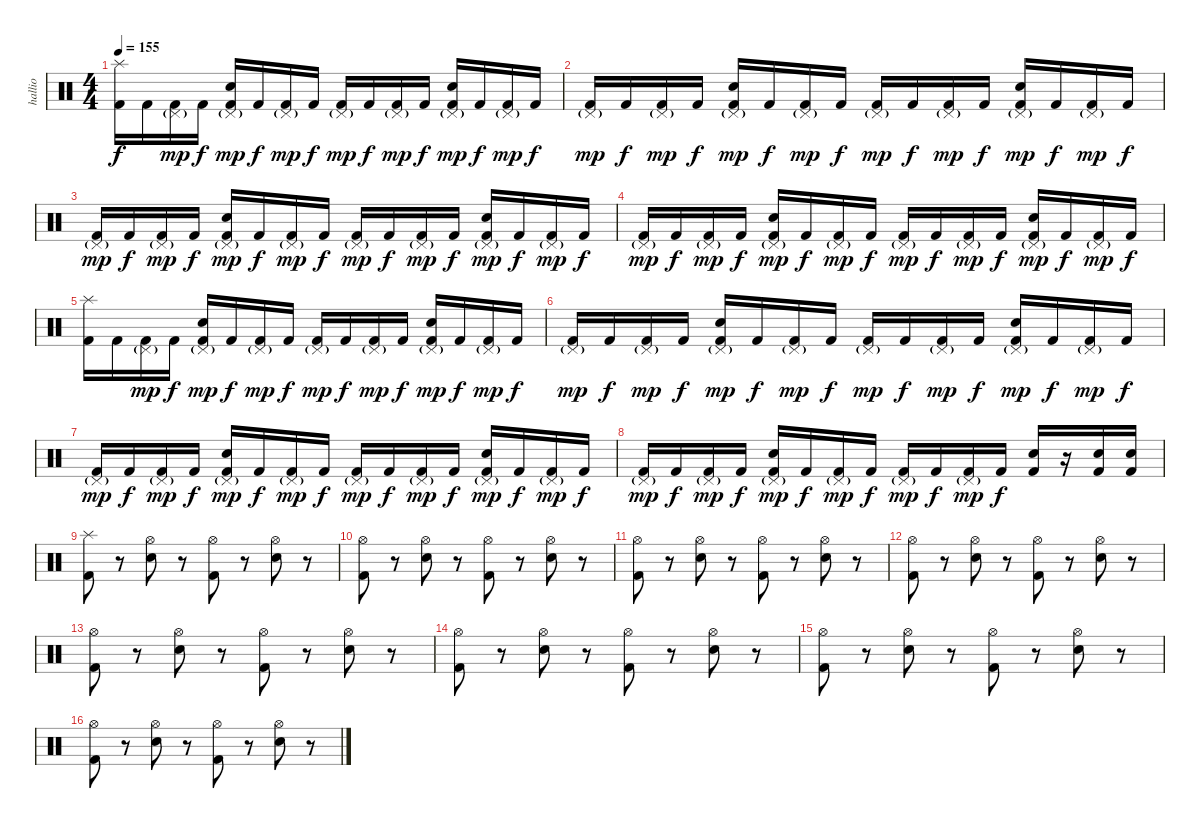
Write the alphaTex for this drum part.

\track ("hallio" "hallio") {instrument percussion}
\staff {score}
\articulation defaults
\ts (4 4)
\tempo 155
\clef neutral
\ks c
("Kick (hit) 2" "Splash (hit)").16{dy f} "Kick (hit) 2".16 ("Kick (hit) 2" "Pedal Hi-Hat (hit)"{g}).16{dy mp} "Kick (hit) 2".16{dy f} ("Kick (hit) 2" "Snare (hit) 2" "Pedal Hi-Hat (hit)"{g}).16{dy mp} "Kick (hit) 2".16{dy f} ("Kick (hit) 2" "Pedal Hi-Hat (hit)"{g}).16{dy mp} "Kick (hit) 2".16{dy f} ("Kick (hit) 2" "Pedal Hi-Hat (hit)"{g}).16{dy mp} "Kick (hit) 2".16{dy f} ("Kick (hit) 2" "Pedal Hi-Hat (hit)"{g}).16{dy mp} "Kick (hit) 2".16{dy f} ("Kick (hit) 2" "Snare (hit) 2" "Pedal Hi-Hat (hit)"{g}).16{dy mp} "Kick (hit) 2".16{dy f} ("Kick (hit) 2" "Pedal Hi-Hat (hit)"{g}).16{dy mp} "Kick (hit) 2".16{dy f} |
("Kick (hit) 2" "Pedal Hi-Hat (hit)"{g}).16{dy mp} "Kick (hit) 2".16{dy f} ("Kick (hit) 2" "Pedal Hi-Hat (hit)"{g}).16{dy mp} "Kick (hit) 2".16{dy f} ("Kick (hit) 2" "Snare (hit) 2" "Pedal Hi-Hat (hit)"{g}).16{dy mp} "Kick (hit) 2".16{dy f} ("Kick (hit) 2" "Pedal Hi-Hat (hit)"{g}).16{dy mp} "Kick (hit) 2".16{dy f} ("Kick (hit) 2" "Pedal Hi-Hat (hit)"{g}).16{dy mp} "Kick (hit) 2".16{dy f} ("Kick (hit) 2" "Pedal Hi-Hat (hit)"{g}).16{dy mp} "Kick (hit) 2".16{dy f} ("Kick (hit) 2" "Snare (hit) 2" "Pedal Hi-Hat (hit)"{g}).16{dy mp} "Kick (hit) 2".16{dy f} ("Kick (hit) 2" "Pedal Hi-Hat (hit)"{g}).16{dy mp} "Kick (hit) 2".16{dy f} |
("Kick (hit) 2" "Pedal Hi-Hat (hit)"{g}).16{dy mp} "Kick (hit) 2".16{dy f} ("Kick (hit) 2" "Pedal Hi-Hat (hit)"{g}).16{dy mp} "Kick (hit) 2".16{dy f} ("Kick (hit) 2" "Snare (hit) 2" "Pedal Hi-Hat (hit)"{g}).16{dy mp} "Kick (hit) 2".16{dy f} ("Kick (hit) 2" "Pedal Hi-Hat (hit)"{g}).16{dy mp} "Kick (hit) 2".16{dy f} ("Kick (hit) 2" "Pedal Hi-Hat (hit)"{g}).16{dy mp} "Kick (hit) 2".16{dy f} ("Kick (hit) 2" "Pedal Hi-Hat (hit)"{g}).16{dy mp} "Kick (hit) 2".16{dy f} ("Kick (hit) 2" "Snare (hit) 2" "Pedal Hi-Hat (hit)"{g}).16{dy mp} "Kick (hit) 2".16{dy f} ("Kick (hit) 2" "Pedal Hi-Hat (hit)"{g}).16{dy mp} "Kick (hit) 2".16{dy f} |
("Kick (hit) 2" "Pedal Hi-Hat (hit)"{g}).16{dy mp} "Kick (hit) 2".16{dy f} ("Kick (hit) 2" "Pedal Hi-Hat (hit)"{g}).16{dy mp} "Kick (hit) 2".16{dy f} ("Kick (hit) 2" "Snare (hit) 2" "Pedal Hi-Hat (hit)"{g}).16{dy mp} "Kick (hit) 2".16{dy f} ("Kick (hit) 2" "Pedal Hi-Hat (hit)"{g}).16{dy mp} "Kick (hit) 2".16{dy f} ("Kick (hit) 2" "Pedal Hi-Hat (hit)"{g}).16{dy mp} "Kick (hit) 2".16{dy f} ("Kick (hit) 2" "Pedal Hi-Hat (hit)"{g}).16{dy mp} "Kick (hit) 2".16{dy f} ("Kick (hit) 2" "Snare (hit) 2" "Pedal Hi-Hat (hit)"{g}).16{dy mp} "Kick (hit) 2".16{dy f} ("Kick (hit) 2" "Pedal Hi-Hat (hit)"{g}).16{dy mp} "Kick (hit) 2".16{dy f} |
("Kick (hit) 2" "Splash (hit)").16 "Kick (hit) 2".16 ("Kick (hit) 2" "Pedal Hi-Hat (hit)"{g}).16{dy mp} "Kick (hit) 2".16{dy f} ("Kick (hit) 2" "Snare (hit) 2" "Pedal Hi-Hat (hit)"{g}).16{dy mp} "Kick (hit) 2".16{dy f} ("Kick (hit) 2" "Pedal Hi-Hat (hit)"{g}).16{dy mp} "Kick (hit) 2".16{dy f} ("Kick (hit) 2" "Pedal Hi-Hat (hit)"{g}).16{dy mp} "Kick (hit) 2".16{dy f} ("Kick (hit) 2" "Pedal Hi-Hat (hit)"{g}).16{dy mp} "Kick (hit) 2".16{dy f} ("Kick (hit) 2" "Snare (hit) 2" "Pedal Hi-Hat (hit)"{g}).16{dy mp} "Kick (hit) 2".16{dy f} ("Kick (hit) 2" "Pedal Hi-Hat (hit)"{g}).16{dy mp} "Kick (hit) 2".16{dy f} |
("Kick (hit) 2" "Pedal Hi-Hat (hit)"{g}).16{dy mp} "Kick (hit) 2".16{dy f} ("Kick (hit) 2" "Pedal Hi-Hat (hit)"{g}).16{dy mp} "Kick (hit) 2".16{dy f} ("Kick (hit) 2" "Snare (hit) 2" "Pedal Hi-Hat (hit)"{g}).16{dy mp} "Kick (hit) 2".16{dy f} ("Kick (hit) 2" "Pedal Hi-Hat (hit)"{g}).16{dy mp} "Kick (hit) 2".16{dy f} ("Kick (hit) 2" "Pedal Hi-Hat (hit)"{g}).16{dy mp} "Kick (hit) 2".16{dy f} ("Kick (hit) 2" "Pedal Hi-Hat (hit)"{g}).16{dy mp} "Kick (hit) 2".16{dy f} ("Kick (hit) 2" "Snare (hit) 2" "Pedal Hi-Hat (hit)"{g}).16{dy mp} "Kick (hit) 2".16{dy f} ("Kick (hit) 2" "Pedal Hi-Hat (hit)"{g}).16{dy mp} "Kick (hit) 2".16{dy f} |
("Kick (hit) 2" "Pedal Hi-Hat (hit)"{g}).16{dy mp} "Kick (hit) 2".16{dy f} ("Kick (hit) 2" "Pedal Hi-Hat (hit)"{g}).16{dy mp} "Kick (hit) 2".16{dy f} ("Kick (hit) 2" "Snare (hit) 2" "Pedal Hi-Hat (hit)"{g}).16{dy mp} "Kick (hit) 2".16{dy f} ("Kick (hit) 2" "Pedal Hi-Hat (hit)"{g}).16{dy mp} "Kick (hit) 2".16{dy f} ("Kick (hit) 2" "Pedal Hi-Hat (hit)"{g}).16{dy mp} "Kick (hit) 2".16{dy f} ("Kick (hit) 2" "Pedal Hi-Hat (hit)"{g}).16{dy mp} "Kick (hit) 2".16{dy f} ("Kick (hit) 2" "Snare (hit) 2" "Pedal Hi-Hat (hit)"{g}).16{dy mp} "Kick (hit) 2".16{dy f} ("Kick (hit) 2" "Pedal Hi-Hat (hit)"{g}).16{dy mp} "Kick (hit) 2".16{dy f} |
("Kick (hit) 2" "Pedal Hi-Hat (hit)"{g}).16{dy mp} "Kick (hit) 2".16{dy f} ("Kick (hit) 2" "Pedal Hi-Hat (hit)"{g}).16{dy mp} "Kick (hit) 2".16{dy f} ("Kick (hit) 2" "Snare (hit) 2" "Pedal Hi-Hat (hit)"{g}).16{dy mp} "Kick (hit) 2".16{dy f} ("Kick (hit) 2" "Pedal Hi-Hat (hit)"{g}).16{dy mp} "Kick (hit) 2".16{dy f} ("Kick (hit) 2" "Pedal Hi-Hat (hit)"{g}).16{dy mp} "Kick (hit) 2".16{dy f} ("Kick (hit) 2" "Pedal Hi-Hat (hit)"{g}).16{dy mp} "Kick (hit) 2".16{dy f} ("Kick (hit) 2" "Snare (hit) 2").16 r.16 ("Kick (hit) 2" "Snare (hit) 2").16 ("Kick (hit) 2" "Snare (hit) 2").16 |
("Kick (hit) 2" "Splash (hit)").8 r.8 ("Snare (hit) 2" "Hi-Hat (open)").8 r.8 ("Kick (hit) 2" "Hi-Hat (open)").8 r.8 ("Snare (hit) 2" "Hi-Hat (open)").8 r.8 |
("Kick (hit) 2" "Hi-Hat (open)").8 r.8 ("Snare (hit) 2" "Hi-Hat (open)").8 r.8 ("Kick (hit) 2" "Hi-Hat (open)").8 r.8 ("Snare (hit) 2" "Hi-Hat (open)").8 r.8 |
("Kick (hit) 2" "Hi-Hat (open)").8 r.8 ("Snare (hit) 2" "Hi-Hat (open)").8 r.8 ("Kick (hit) 2" "Hi-Hat (open)").8 r.8 ("Snare (hit) 2" "Hi-Hat (open)").8 r.8 |
("Kick (hit) 2" "Hi-Hat (open)").8 r.8 ("Snare (hit) 2" "Hi-Hat (open)").8 r.8 ("Kick (hit) 2" "Hi-Hat (open)").8 r.8 ("Snare (hit) 2" "Hi-Hat (open)").8 r.8 |
("Kick (hit) 2" "Hi-Hat (open)").8 r.8 ("Snare (hit) 2" "Hi-Hat (open)").8 r.8 ("Kick (hit) 2" "Hi-Hat (open)").8 r.8 ("Snare (hit) 2" "Hi-Hat (open)").8 r.8 |
("Kick (hit) 2" "Hi-Hat (open)").8 r.8 ("Snare (hit) 2" "Hi-Hat (open)").8 r.8 ("Kick (hit) 2" "Hi-Hat (open)").8 r.8 ("Snare (hit) 2" "Hi-Hat (open)").8 r.8 |
("Kick (hit) 2" "Hi-Hat (open)").8 r.8 ("Snare (hit) 2" "Hi-Hat (open)").8 r.8 ("Kick (hit) 2" "Hi-Hat (open)").8 r.8 ("Snare (hit) 2" "Hi-Hat (open)").8 r.8 |
("Kick (hit) 2" "Hi-Hat (open)").8 r.8 ("Snare (hit) 2" "Hi-Hat (open)").8 r.8 ("Kick (hit) 2" "Hi-Hat (open)").8 r.8 ("Snare (hit) 2" "Hi-Hat (open)").8 r.8
